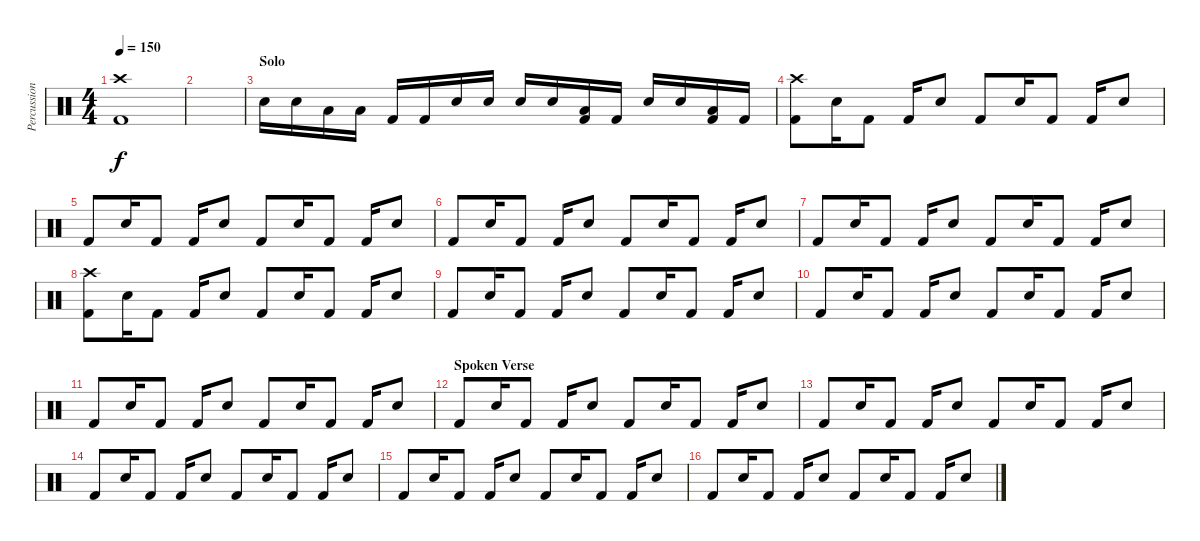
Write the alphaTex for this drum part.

\track ("Percussion" "Percussion") {instrument percussion}
\staff {score}
\articulation defaults
\ts (4 4)
\tempo 150
\clef neutral
\ks c
("Crash high (hit)" "Kick (hit) 2").1{dy f} |
|
\section ("" "Solo")
"Snare (hit) 2".16 "Snare (hit) 2".16 "Low Tom (hit)".16 "Low Tom (hit)".16 "Kick (hit) 2".16 "Kick (hit) 2".16 "Snare (hit) 2".16 "Snare (hit) 2".16 "Snare (hit) 2".16 "Snare (hit) 2".16 ("Low Tom (hit)" "Kick (hit) 2").16 "Kick (hit) 2".16 "Snare (hit) 2".16 "Snare (hit) 2".16 ("Low Tom (hit)" "Kick (hit) 2").16 "Kick (hit) 2".16 |
("Crash high (hit)" "Kick (hit) 2").8 "Snare (hit) 2".16 "Kick (hit) 2".8 "Kick (hit) 2".16 "Snare (hit) 2".8 "Kick (hit) 2".8 "Snare (hit) 2".16 "Kick (hit) 2".8 "Kick (hit) 2".16 "Snare (hit) 2".8 |
"Kick (hit) 2".8 "Snare (hit) 2".16 "Kick (hit) 2".8 "Kick (hit) 2".16 "Snare (hit) 2".8 "Kick (hit) 2".8 "Snare (hit) 2".16 "Kick (hit) 2".8 "Kick (hit) 2".16 "Snare (hit) 2".8 |
"Kick (hit) 2".8 "Snare (hit) 2".16 "Kick (hit) 2".8 "Kick (hit) 2".16 "Snare (hit) 2".8 "Kick (hit) 2".8 "Snare (hit) 2".16 "Kick (hit) 2".8 "Kick (hit) 2".16 "Snare (hit) 2".8 |
"Kick (hit) 2".8 "Snare (hit) 2".16 "Kick (hit) 2".8 "Kick (hit) 2".16 "Snare (hit) 2".8 "Kick (hit) 2".8 "Snare (hit) 2".16 "Kick (hit) 2".8 "Kick (hit) 2".16 "Snare (hit) 2".8 |
("Crash high (hit)" "Kick (hit) 2").8 "Snare (hit) 2".16 "Kick (hit) 2".8 "Kick (hit) 2".16 "Snare (hit) 2".8 "Kick (hit) 2".8 "Snare (hit) 2".16 "Kick (hit) 2".8 "Kick (hit) 2".16 "Snare (hit) 2".8 |
"Kick (hit) 2".8 "Snare (hit) 2".16 "Kick (hit) 2".8 "Kick (hit) 2".16 "Snare (hit) 2".8 "Kick (hit) 2".8 "Snare (hit) 2".16 "Kick (hit) 2".8 "Kick (hit) 2".16 "Snare (hit) 2".8 |
"Kick (hit) 2".8 "Snare (hit) 2".16 "Kick (hit) 2".8 "Kick (hit) 2".16 "Snare (hit) 2".8 "Kick (hit) 2".8 "Snare (hit) 2".16 "Kick (hit) 2".8 "Kick (hit) 2".16 "Snare (hit) 2".8 |
"Kick (hit) 2".8 "Snare (hit) 2".16 "Kick (hit) 2".8 "Kick (hit) 2".16 "Snare (hit) 2".8 "Kick (hit) 2".8 "Snare (hit) 2".16 "Kick (hit) 2".8 "Kick (hit) 2".16 "Snare (hit) 2".8 |
\section ("" "Spoken Verse")
"Kick (hit) 2".8 "Snare (hit) 2".16 "Kick (hit) 2".8 "Kick (hit) 2".16 "Snare (hit) 2".8 "Kick (hit) 2".8 "Snare (hit) 2".16 "Kick (hit) 2".8 "Kick (hit) 2".16 "Snare (hit) 2".8 |
"Kick (hit) 2".8 "Snare (hit) 2".16 "Kick (hit) 2".8 "Kick (hit) 2".16 "Snare (hit) 2".8 "Kick (hit) 2".8 "Snare (hit) 2".16 "Kick (hit) 2".8 "Kick (hit) 2".16 "Snare (hit) 2".8 |
"Kick (hit) 2".8 "Snare (hit) 2".16 "Kick (hit) 2".8 "Kick (hit) 2".16 "Snare (hit) 2".8 "Kick (hit) 2".8 "Snare (hit) 2".16 "Kick (hit) 2".8 "Kick (hit) 2".16 "Snare (hit) 2".8 |
"Kick (hit) 2".8 "Snare (hit) 2".16 "Kick (hit) 2".8 "Kick (hit) 2".16 "Snare (hit) 2".8 "Kick (hit) 2".8 "Snare (hit) 2".16 "Kick (hit) 2".8 "Kick (hit) 2".16 "Snare (hit) 2".8 |
"Kick (hit) 2".8 "Snare (hit) 2".16 "Kick (hit) 2".8 "Kick (hit) 2".16 "Snare (hit) 2".8 "Kick (hit) 2".8 "Snare (hit) 2".16 "Kick (hit) 2".8 "Kick (hit) 2".16 "Snare (hit) 2".8
